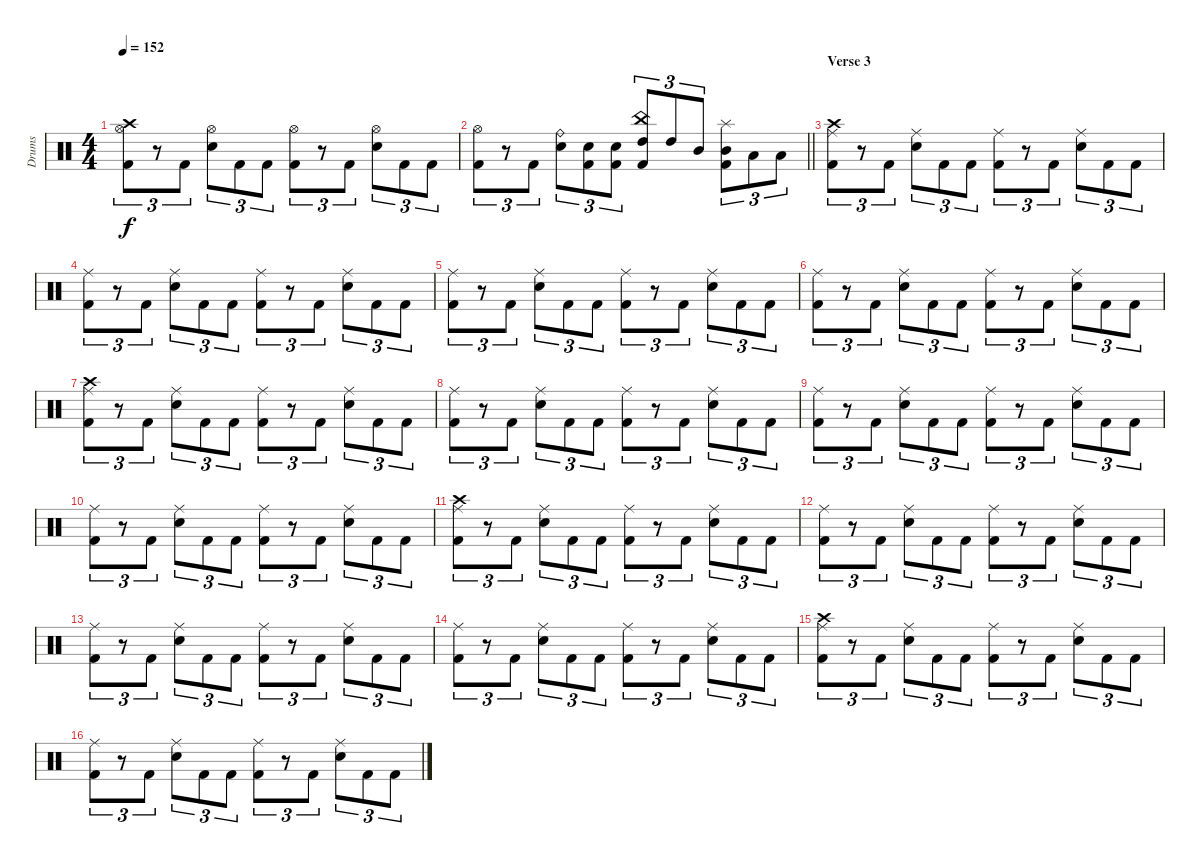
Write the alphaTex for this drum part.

\track ("Drums" "Drums") {instrument percussion}
\staff {score}
\articulation defaults
\ts (4 4)
\tempo 152
\clef neutral
\ks c
("Crash high (hit)" "Hi-Hat (open)" "Kick (hit) 2").8{tu (3 2) dy f} r.8{tu (3 2)} "Kick (hit) 2".8{tu (3 2)} ("Hi-Hat (open)" "Snare (hit) 2").8{tu (3 2)} "Kick (hit) 2".8{tu (3 2)} "Kick (hit) 2".8{tu (3 2)} ("Hi-Hat (open)" "Kick (hit) 2").8{tu (3 2)} r.8{tu (3 2)} "Kick (hit) 2".8{tu (3 2)} ("Hi-Hat (open)" "Snare (hit) 2").8{tu (3 2)} "Kick (hit) 2".8{tu (3 2)} "Kick (hit) 2".8{tu (3 2)} |
\barLineRight lightlight
("Hi-Hat (open)" "Kick (hit) 2").8{tu (3 2)} r.8{tu (3 2)} "Kick (hit) 2".8{tu (3 2)} ("Ride (bell)" "Snare (hit) 2").8{tu (3 2)} ("Snare (hit) 2" "Kick (hit) 2").8{tu (3 2)} ("Snare (hit) 2" "Kick (hit) 2").8{tu (3 2)} ("China (hit)" "High Tom (hit)" "Kick (hit) 2").8{tu (3 2)} "High Tom (hit)".8{tu (3 2)} "Mid Tom (hit)".8{tu (3 2)} ("Splash (hit)" "Mid Tom (hit)" "Kick (hit) 2").8{tu (3 2)} "Low Tom (hit)".8{tu (3 2)} "Low Tom (hit)".8{tu (3 2)} |
\section ("" "Verse 3")
("Crash high (hit)" "Ride (middle)" "Kick (hit) 2").8{tu (3 2)} r.8{tu (3 2)} "Kick (hit) 2".8{tu (3 2)} ("Ride (middle)" "Snare (hit) 2").8{tu (3 2)} "Kick (hit) 2".8{tu (3 2)} "Kick (hit) 2".8{tu (3 2)} ("Ride (middle)" "Kick (hit) 2").8{tu (3 2)} r.8{tu (3 2)} "Kick (hit) 2".8{tu (3 2)} ("Ride (middle)" "Snare (hit) 2").8{tu (3 2)} "Kick (hit) 2".8{tu (3 2)} "Kick (hit) 2".8{tu (3 2)} |
("Ride (middle)" "Kick (hit) 2").8{tu (3 2)} r.8{tu (3 2)} "Kick (hit) 2".8{tu (3 2)} ("Ride (middle)" "Snare (hit) 2").8{tu (3 2)} "Kick (hit) 2".8{tu (3 2)} "Kick (hit) 2".8{tu (3 2)} ("Ride (middle)" "Kick (hit) 2").8{tu (3 2)} r.8{tu (3 2)} "Kick (hit) 2".8{tu (3 2)} ("Ride (middle)" "Snare (hit) 2").8{tu (3 2)} "Kick (hit) 2".8{tu (3 2)} "Kick (hit) 2".8{tu (3 2)} |
("Ride (middle)" "Kick (hit) 2").8{tu (3 2)} r.8{tu (3 2)} "Kick (hit) 2".8{tu (3 2)} ("Ride (middle)" "Snare (hit) 2").8{tu (3 2)} "Kick (hit) 2".8{tu (3 2)} "Kick (hit) 2".8{tu (3 2)} ("Ride (middle)" "Kick (hit) 2").8{tu (3 2)} r.8{tu (3 2)} "Kick (hit) 2".8{tu (3 2)} ("Ride (middle)" "Snare (hit) 2").8{tu (3 2)} "Kick (hit) 2".8{tu (3 2)} "Kick (hit) 2".8{tu (3 2)} |
("Ride (middle)" "Kick (hit) 2").8{tu (3 2)} r.8{tu (3 2)} "Kick (hit) 2".8{tu (3 2)} ("Ride (middle)" "Snare (hit) 2").8{tu (3 2)} "Kick (hit) 2".8{tu (3 2)} "Kick (hit) 2".8{tu (3 2)} ("Ride (middle)" "Kick (hit) 2").8{tu (3 2)} r.8{tu (3 2)} "Kick (hit) 2".8{tu (3 2)} ("Ride (middle)" "Snare (hit) 2").8{tu (3 2)} "Kick (hit) 2".8{tu (3 2)} "Kick (hit) 2".8{tu (3 2)} |
("Crash high (hit)" "Ride (middle)" "Kick (hit) 2").8{tu (3 2)} r.8{tu (3 2)} "Kick (hit) 2".8{tu (3 2)} ("Ride (middle)" "Snare (hit) 2").8{tu (3 2)} "Kick (hit) 2".8{tu (3 2)} "Kick (hit) 2".8{tu (3 2)} ("Ride (middle)" "Kick (hit) 2").8{tu (3 2)} r.8{tu (3 2)} "Kick (hit) 2".8{tu (3 2)} ("Ride (middle)" "Snare (hit) 2").8{tu (3 2)} "Kick (hit) 2".8{tu (3 2)} "Kick (hit) 2".8{tu (3 2)} |
("Ride (middle)" "Kick (hit) 2").8{tu (3 2)} r.8{tu (3 2)} "Kick (hit) 2".8{tu (3 2)} ("Ride (middle)" "Snare (hit) 2").8{tu (3 2)} "Kick (hit) 2".8{tu (3 2)} "Kick (hit) 2".8{tu (3 2)} ("Ride (middle)" "Kick (hit) 2").8{tu (3 2)} r.8{tu (3 2)} "Kick (hit) 2".8{tu (3 2)} ("Ride (middle)" "Snare (hit) 2").8{tu (3 2)} "Kick (hit) 2".8{tu (3 2)} "Kick (hit) 2".8{tu (3 2)} |
("Ride (middle)" "Kick (hit) 2").8{tu (3 2)} r.8{tu (3 2)} "Kick (hit) 2".8{tu (3 2)} ("Ride (middle)" "Snare (hit) 2").8{tu (3 2)} "Kick (hit) 2".8{tu (3 2)} "Kick (hit) 2".8{tu (3 2)} ("Ride (middle)" "Kick (hit) 2").8{tu (3 2)} r.8{tu (3 2)} "Kick (hit) 2".8{tu (3 2)} ("Ride (middle)" "Snare (hit) 2").8{tu (3 2)} "Kick (hit) 2".8{tu (3 2)} "Kick (hit) 2".8{tu (3 2)} |
("Ride (middle)" "Kick (hit) 2").8{tu (3 2)} r.8{tu (3 2)} "Kick (hit) 2".8{tu (3 2)} ("Ride (middle)" "Snare (hit) 2").8{tu (3 2)} "Kick (hit) 2".8{tu (3 2)} "Kick (hit) 2".8{tu (3 2)} ("Ride (middle)" "Kick (hit) 2").8{tu (3 2)} r.8{tu (3 2)} "Kick (hit) 2".8{tu (3 2)} ("Ride (middle)" "Snare (hit) 2").8{tu (3 2)} "Kick (hit) 2".8{tu (3 2)} "Kick (hit) 2".8{tu (3 2)} |
("Crash high (hit)" "Ride (middle)" "Kick (hit) 2").8{tu (3 2)} r.8{tu (3 2)} "Kick (hit) 2".8{tu (3 2)} ("Ride (middle)" "Snare (hit) 2").8{tu (3 2)} "Kick (hit) 2".8{tu (3 2)} "Kick (hit) 2".8{tu (3 2)} ("Ride (middle)" "Kick (hit) 2").8{tu (3 2)} r.8{tu (3 2)} "Kick (hit) 2".8{tu (3 2)} ("Ride (middle)" "Snare (hit) 2").8{tu (3 2)} "Kick (hit) 2".8{tu (3 2)} "Kick (hit) 2".8{tu (3 2)} |
("Ride (middle)" "Kick (hit) 2").8{tu (3 2)} r.8{tu (3 2)} "Kick (hit) 2".8{tu (3 2)} ("Ride (middle)" "Snare (hit) 2").8{tu (3 2)} "Kick (hit) 2".8{tu (3 2)} "Kick (hit) 2".8{tu (3 2)} ("Ride (middle)" "Kick (hit) 2").8{tu (3 2)} r.8{tu (3 2)} "Kick (hit) 2".8{tu (3 2)} ("Ride (middle)" "Snare (hit) 2").8{tu (3 2)} "Kick (hit) 2".8{tu (3 2)} "Kick (hit) 2".8{tu (3 2)} |
("Ride (middle)" "Kick (hit) 2").8{tu (3 2)} r.8{tu (3 2)} "Kick (hit) 2".8{tu (3 2)} ("Ride (middle)" "Snare (hit) 2").8{tu (3 2)} "Kick (hit) 2".8{tu (3 2)} "Kick (hit) 2".8{tu (3 2)} ("Ride (middle)" "Kick (hit) 2").8{tu (3 2)} r.8{tu (3 2)} "Kick (hit) 2".8{tu (3 2)} ("Ride (middle)" "Snare (hit) 2").8{tu (3 2)} "Kick (hit) 2".8{tu (3 2)} "Kick (hit) 2".8{tu (3 2)} |
("Ride (middle)" "Kick (hit) 2").8{tu (3 2)} r.8{tu (3 2)} "Kick (hit) 2".8{tu (3 2)} ("Ride (middle)" "Snare (hit) 2").8{tu (3 2)} "Kick (hit) 2".8{tu (3 2)} "Kick (hit) 2".8{tu (3 2)} ("Ride (middle)" "Kick (hit) 2").8{tu (3 2)} r.8{tu (3 2)} "Kick (hit) 2".8{tu (3 2)} ("Ride (middle)" "Snare (hit) 2").8{tu (3 2)} "Kick (hit) 2".8{tu (3 2)} "Kick (hit) 2".8{tu (3 2)} |
("Crash high (hit)" "Ride (middle)" "Kick (hit) 2").8{tu (3 2)} r.8{tu (3 2)} "Kick (hit) 2".8{tu (3 2)} ("Ride (middle)" "Snare (hit) 2").8{tu (3 2)} "Kick (hit) 2".8{tu (3 2)} "Kick (hit) 2".8{tu (3 2)} ("Ride (middle)" "Kick (hit) 2").8{tu (3 2)} r.8{tu (3 2)} "Kick (hit) 2".8{tu (3 2)} ("Ride (middle)" "Snare (hit) 2").8{tu (3 2)} "Kick (hit) 2".8{tu (3 2)} "Kick (hit) 2".8{tu (3 2)} |
("Ride (middle)" "Kick (hit) 2").8{tu (3 2)} r.8{tu (3 2)} "Kick (hit) 2".8{tu (3 2)} ("Ride (middle)" "Snare (hit) 2").8{tu (3 2)} "Kick (hit) 2".8{tu (3 2)} "Kick (hit) 2".8{tu (3 2)} ("Ride (middle)" "Kick (hit) 2").8{tu (3 2)} r.8{tu (3 2)} "Kick (hit) 2".8{tu (3 2)} ("Ride (middle)" "Snare (hit) 2").8{tu (3 2)} "Kick (hit) 2".8{tu (3 2)} "Kick (hit) 2".8{tu (3 2)}
